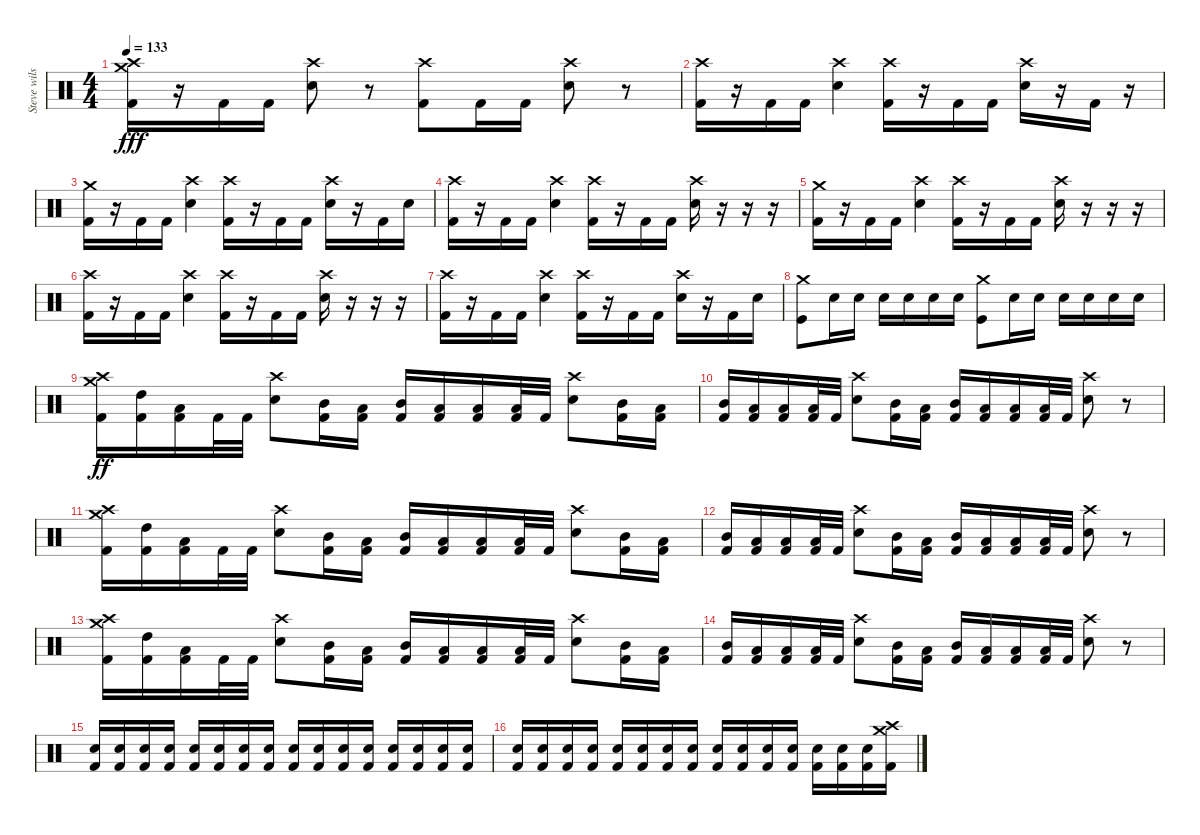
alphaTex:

\track ("Steve wilson" "Steve wils") {instrument percussion}
\staff {score}
\articulation defaults
\ts (4 4)
\tempo 133
\clef neutral
\ks c
("Crash high (hit)" "Crash medium (hit)" "Kick (hit) 2").16{dy fff} r.16 "Kick (hit) 2".16 "Kick (hit) 2".16 ("Crash high (hit)" "Electric Snare (hit)").8 r.8 ("Crash high (hit)" "Kick (hit) 2").8 "Kick (hit) 2".16 "Kick (hit) 2".16 ("Crash high (hit)" "Electric Snare (hit)").8 r.8 |
("Crash high (hit)" "Kick (hit) 2").16 r.16 "Kick (hit) 2".16 "Kick (hit) 2".16 ("Crash high (hit)" "Electric Snare (hit)").4 ("Crash high (hit)" "Kick (hit) 2").16 r.16 "Kick (hit) 2".16 "Kick (hit) 2".16 ("Crash high (hit)" "Electric Snare (hit)").16 r.16 "Kick (hit) 2".16 r.16 |
("Crash medium (hit)" "Kick (hit) 2").16 r.16 "Kick (hit) 2".16 "Kick (hit) 2".16 ("Crash high (hit)" "Electric Snare (hit)").4 ("Crash high (hit)" "Kick (hit) 2").16 r.16 "Kick (hit) 2".16 "Kick (hit) 2".16 ("Crash high (hit)" "Electric Snare (hit)").16 r.16 "Kick (hit) 2".16 "Electric Snare (hit)".16 |
("Crash high (hit)" "Kick (hit) 2").16 r.16 "Kick (hit) 2".16 "Kick (hit) 2".16 ("Crash high (hit)" "Electric Snare (hit)").4 ("Crash high (hit)" "Kick (hit) 2").16 r.16 "Kick (hit) 2".16 "Kick (hit) 2".16 ("Crash high (hit)" "Electric Snare (hit)").16 r.16 r.16 r.16 |
("Crash medium (hit)" "Kick (hit) 2").16 r.16 "Kick (hit) 2".16 "Kick (hit) 2".16 ("Crash high (hit)" "Electric Snare (hit)").4 ("Crash high (hit)" "Kick (hit) 2").16 r.16 "Kick (hit) 2".16 "Kick (hit) 2".16 ("Crash high (hit)" "Electric Snare (hit)").16 r.16 r.16 r.16 |
("Crash high (hit)" "Kick (hit) 2").16 r.16 "Kick (hit) 2".16 "Kick (hit) 2".16 ("Crash high (hit)" "Electric Snare (hit)").4 ("Crash high (hit)" "Kick (hit) 2").16 r.16 "Kick (hit) 2".16 "Kick (hit) 2".16 ("Crash high (hit)" "Electric Snare (hit)").16 r.16 r.16 r.16 |
("Crash high (hit)" "Kick (hit) 2").16 r.16 "Kick (hit) 2".16 "Kick (hit) 2".16 ("Crash high (hit)" "Electric Snare (hit)").4 ("Crash high (hit)" "Kick (hit) 2").16 r.16 "Kick (hit) 2".16 "Kick (hit) 2".16 ("Crash high (hit)" "Electric Snare (hit)").16 r.16 "Kick (hit) 2".16 "Electric Snare (hit)".16 |
("Crash medium (hit)" "Kick (hit)").8 "Electric Snare (hit)".16 "Electric Snare (hit)".16 "Electric Snare (hit)".16 "Electric Snare (hit)".16 "Electric Snare (hit)".16 "Electric Snare (hit)".16 ("Crash medium (hit)" "Kick (hit)").8 "Electric Snare (hit)".16 "Electric Snare (hit)".16 "Electric Snare (hit)".16 "Electric Snare (hit)".16 "Electric Snare (hit)".16 "Electric Snare (hit)".16 |
("Crash medium (hit)" "Crash high (hit)" "Kick (hit) 2").16{dy ff} ("High Tom (hit)" "Kick (hit) 2").16 ("Low Tom (hit)" "Kick (hit) 2").16 "Kick (hit) 2".32 "Kick (hit) 2".32 ("Crash high (hit)" "Electric Snare (hit)").8 ("Mid Tom (hit)" "Kick (hit) 2").16 ("Low Tom (hit)" "Kick (hit) 2").16 ("Mid Tom (hit)" "Kick (hit) 2").16 ("Low Tom (hit)" "Kick (hit) 2").16 ("Low Tom (hit)" "Kick (hit) 2").16 ("Low Tom (hit)" "Kick (hit) 2").32 "Kick (hit) 2".32 ("Crash high (hit)" "Electric Snare (hit)").8 ("Mid Tom (hit)" "Kick (hit) 2").16 ("Low Tom (hit)" "Kick (hit) 2").16 |
("Mid Tom (hit)" "Kick (hit) 2").16 ("Low Tom (hit)" "Kick (hit) 2").16 ("Low Tom (hit)" "Kick (hit) 2").16 ("Low Tom (hit)" "Kick (hit) 2").32 "Kick (hit) 2".32 ("Crash high (hit)" "Electric Snare (hit)").8 ("Mid Tom (hit)" "Kick (hit) 2").16 ("Low Tom (hit)" "Kick (hit) 2").16 ("Mid Tom (hit)" "Kick (hit) 2").16 ("Low Tom (hit)" "Kick (hit) 2").16 ("Low Tom (hit)" "Kick (hit) 2").16 ("Low Tom (hit)" "Kick (hit) 2").32 "Kick (hit) 2".32 ("Crash high (hit)" "Electric Snare (hit)").8 r.8 |
("Crash medium (hit)" "Crash high (hit)" "Kick (hit) 2").16 ("High Tom (hit)" "Kick (hit) 2").16 ("Low Tom (hit)" "Kick (hit) 2").16 "Kick (hit) 2".32 "Kick (hit) 2".32 ("Crash high (hit)" "Electric Snare (hit)").8 ("Mid Tom (hit)" "Kick (hit) 2").16 ("Low Tom (hit)" "Kick (hit) 2").16 ("Mid Tom (hit)" "Kick (hit) 2").16 ("Low Tom (hit)" "Kick (hit) 2").16 ("Low Tom (hit)" "Kick (hit) 2").16 ("Low Tom (hit)" "Kick (hit) 2").32 "Kick (hit) 2".32 ("Crash high (hit)" "Electric Snare (hit)").8 ("Mid Tom (hit)" "Kick (hit) 2").16 ("Low Tom (hit)" "Kick (hit) 2").16 |
("Mid Tom (hit)" "Kick (hit) 2").16 ("Low Tom (hit)" "Kick (hit) 2").16 ("Low Tom (hit)" "Kick (hit) 2").16 ("Low Tom (hit)" "Kick (hit) 2").32 "Kick (hit) 2".32 ("Crash high (hit)" "Electric Snare (hit)").8 ("Mid Tom (hit)" "Kick (hit) 2").16 ("Low Tom (hit)" "Kick (hit) 2").16 ("Mid Tom (hit)" "Kick (hit) 2").16 ("Low Tom (hit)" "Kick (hit) 2").16 ("Low Tom (hit)" "Kick (hit) 2").16 ("Low Tom (hit)" "Kick (hit) 2").32 "Kick (hit) 2".32 ("Crash high (hit)" "Electric Snare (hit)").8 r.8 |
("Crash medium (hit)" "Crash high (hit)" "Kick (hit) 2").16 ("High Tom (hit)" "Kick (hit) 2").16 ("Low Tom (hit)" "Kick (hit) 2").16 "Kick (hit) 2".32 "Kick (hit) 2".32 ("Crash high (hit)" "Electric Snare (hit)").8 ("Mid Tom (hit)" "Kick (hit) 2").16 ("Low Tom (hit)" "Kick (hit) 2").16 ("Mid Tom (hit)" "Kick (hit) 2").16 ("Low Tom (hit)" "Kick (hit) 2").16 ("Low Tom (hit)" "Kick (hit) 2").16 ("Low Tom (hit)" "Kick (hit) 2").32 "Kick (hit) 2".32 ("Crash high (hit)" "Electric Snare (hit)").8 ("Mid Tom (hit)" "Kick (hit) 2").16 ("Low Tom (hit)" "Kick (hit) 2").16 |
("Mid Tom (hit)" "Kick (hit) 2").16 ("Low Tom (hit)" "Kick (hit) 2").16 ("Low Tom (hit)" "Kick (hit) 2").16 ("Low Tom (hit)" "Kick (hit) 2").32 "Kick (hit) 2".32 ("Crash high (hit)" "Electric Snare (hit)").8 ("Mid Tom (hit)" "Kick (hit) 2").16 ("Low Tom (hit)" "Kick (hit) 2").16 ("Mid Tom (hit)" "Kick (hit) 2").16 ("Low Tom (hit)" "Kick (hit) 2").16 ("Low Tom (hit)" "Kick (hit) 2").16 ("Low Tom (hit)" "Kick (hit) 2").32 "Kick (hit) 2".32 ("Crash high (hit)" "Electric Snare (hit)").8 r.8 |
("Electric Snare (hit)" "Kick (hit) 2").16 ("Electric Snare (hit)" "Kick (hit) 2").16 ("Electric Snare (hit)" "Kick (hit) 2").16 ("Electric Snare (hit)" "Kick (hit) 2").16 ("Electric Snare (hit)" "Kick (hit) 2").16 ("Electric Snare (hit)" "Kick (hit) 2").16 ("Electric Snare (hit)" "Kick (hit) 2").16 ("Electric Snare (hit)" "Kick (hit) 2").16 ("Electric Snare (hit)" "Kick (hit) 2").16 ("Electric Snare (hit)" "Kick (hit) 2").16 ("Electric Snare (hit)" "Kick (hit) 2").16 ("Electric Snare (hit)" "Kick (hit) 2").16 ("Electric Snare (hit)" "Kick (hit) 2").16 ("Electric Snare (hit)" "Kick (hit) 2").16 ("Electric Snare (hit)" "Kick (hit) 2").16 ("Electric Snare (hit)" "Kick (hit) 2").16 |
("Electric Snare (hit)" "Kick (hit) 2").16 ("Electric Snare (hit)" "Kick (hit) 2").16 ("Electric Snare (hit)" "Kick (hit) 2").16 ("Electric Snare (hit)" "Kick (hit) 2").16 ("Electric Snare (hit)" "Kick (hit) 2").16 ("Electric Snare (hit)" "Kick (hit) 2").16 ("Electric Snare (hit)" "Kick (hit) 2").16 ("Electric Snare (hit)" "Kick (hit) 2").16 ("Electric Snare (hit)" "Kick (hit) 2").16 ("Electric Snare (hit)" "Kick (hit) 2").16 ("Electric Snare (hit)" "Kick (hit) 2").16 ("Electric Snare (hit)" "Kick (hit) 2").16 ("Electric Snare (hit)" "Kick (hit) 2").16 ("Electric Snare (hit)" "Kick (hit) 2").16 ("Electric Snare (hit)" "Kick (hit) 2").16 ("Crash high (hit)" "Crash medium (hit)" "Kick (hit) 2").16
